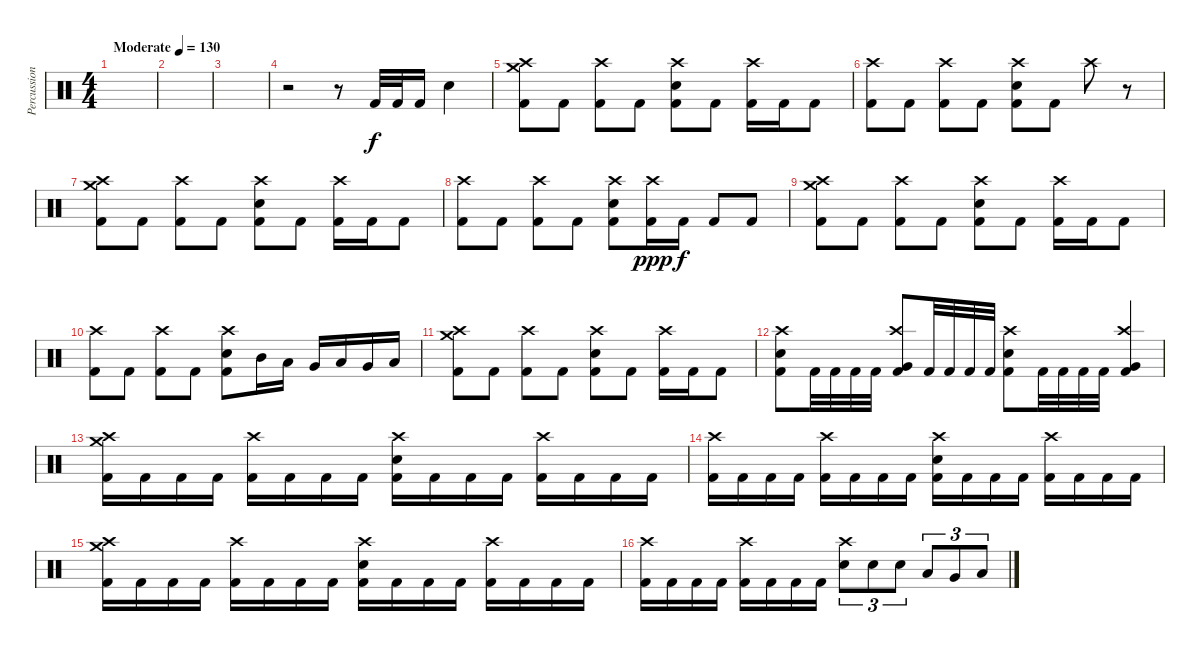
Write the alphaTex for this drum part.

\track ("Percussion" "Percussion") {instrument percussion}
\staff {score}
\articulation defaults
\ts (4 4)
\tempo (130 "Moderate")
\clef neutral
\ks c
|
|
|
r.2 r.8 "Kick (hit) 2".32 "Kick (hit) 2".32 "Kick (hit) 2".16 "Electric Snare (hit)".4 |
("Crash medium (hit)" "Crash high (hit)" "Kick (hit) 2").8 "Kick (hit) 2".8 ("Crash high (hit)" "Kick (hit) 2").8 "Kick (hit) 2".8 ("Crash high (hit)" "Electric Snare (hit)" "Kick (hit) 2").8 "Kick (hit) 2".8 ("Crash high (hit)" "Kick (hit) 2").16 "Kick (hit) 2".16 "Kick (hit) 2".8 |
("Crash high (hit)" "Kick (hit) 2").8 "Kick (hit) 2".8 ("Crash high (hit)" "Kick (hit) 2").8 "Kick (hit) 2".8 ("Crash high (hit)" "Electric Snare (hit)" "Kick (hit) 2").8 "Kick (hit) 2".8 "Crash high (hit)".8 r.8 |
("Crash medium (hit)" "Crash high (hit)" "Kick (hit) 2").8 "Kick (hit) 2".8 ("Crash high (hit)" "Kick (hit) 2").8 "Kick (hit) 2".8 ("Crash high (hit)" "Electric Snare (hit)" "Kick (hit) 2").8 "Kick (hit) 2".8 ("Crash high (hit)" "Kick (hit) 2").16 "Kick (hit) 2".16 "Kick (hit) 2".8 |
("Crash high (hit)" "Kick (hit) 2").8 "Kick (hit) 2".8 ("Crash high (hit)" "Kick (hit) 2").8 "Kick (hit) 2".8 ("Crash high (hit)" "Electric Snare (hit)" "Kick (hit) 2").8 ("Crash high (hit)" "Kick (hit) 2").16{dy ppp} "Kick (hit) 2".16{dy f} "Kick (hit) 2".8 "Kick (hit) 2".8 |
("Crash medium (hit)" "Crash high (hit)" "Kick (hit) 2").8 "Kick (hit) 2".8 ("Crash high (hit)" "Kick (hit) 2").8 "Kick (hit) 2".8 ("Crash high (hit)" "Electric Snare (hit)" "Kick (hit) 2").8 "Kick (hit) 2".8 ("Crash high (hit)" "Kick (hit) 2").16 "Kick (hit) 2".16 "Kick (hit) 2".8 |
("Crash high (hit)" "Kick (hit) 2").8 "Kick (hit) 2".8 ("Crash high (hit)" "Kick (hit) 2").8 "Kick (hit) 2".8 ("Crash high (hit)" "Electric Snare (hit)" "Kick (hit) 2").8 "Mid Tom (hit)".16 "Low Tom (hit)".16 "Very Low Tom (hit)".16 "Low Tom (hit)".16 "Very Low Tom (hit)".16 "Low Floor Tom (hit)".16 |
("Crash medium (hit)" "Crash high (hit)" "Kick (hit) 2").8 "Kick (hit) 2".8 ("Crash high (hit)" "Kick (hit) 2").8 "Kick (hit) 2".8 ("Crash high (hit)" "Electric Snare (hit)" "Kick (hit) 2").8 "Kick (hit) 2".8 ("Crash high (hit)" "Kick (hit) 2").16 "Kick (hit) 2".16 "Kick (hit) 2".8 |
("Crash high (hit)" "Electric Snare (hit)" "Kick (hit) 2").8 "Kick (hit) 2".32 "Kick (hit) 2".32 "Kick (hit) 2".32 "Kick (hit) 2".32 ("Crash high (hit)" "Very Low Tom (hit)" "Kick (hit) 2").8 "Kick (hit) 2".32 "Kick (hit) 2".32 "Kick (hit) 2".32 "Kick (hit) 2".32 ("Crash high (hit)" "Electric Snare (hit)" "Kick (hit) 2").8 "Kick (hit) 2".32 "Kick (hit) 2".32 "Kick (hit) 2".32 "Kick (hit) 2".32 ("Crash high (hit)" "Very Low Tom (hit)" "Kick (hit) 2").4 |
("Crash medium (hit)" "Crash high (hit)" "Kick (hit) 2").16 "Kick (hit) 2".16 "Kick (hit) 2".16 "Kick (hit) 2".16 ("Crash high (hit)" "Kick (hit) 2").16 "Kick (hit) 2".16 "Kick (hit) 2".16 "Kick (hit) 2".16 ("Crash high (hit)" "Electric Snare (hit)" "Kick (hit) 2").16 "Kick (hit) 2".16 "Kick (hit) 2".16 "Kick (hit) 2".16 ("Crash high (hit)" "Kick (hit) 2").16 "Kick (hit) 2".16 "Kick (hit) 2".16 "Kick (hit) 2".16 |
("Crash high (hit)" "Kick (hit) 2").16 "Kick (hit) 2".16 "Kick (hit) 2".16 "Kick (hit) 2".16 ("Crash high (hit)" "Kick (hit) 2").16 "Kick (hit) 2".16 "Kick (hit) 2".16 "Kick (hit) 2".16 ("Crash high (hit)" "Electric Snare (hit)" "Kick (hit) 2").16 "Kick (hit) 2".16 "Kick (hit) 2".16 "Kick (hit) 2".16 ("Crash high (hit)" "Kick (hit) 2").16 "Kick (hit) 2".16 "Kick (hit) 2".16 "Kick (hit) 2".16 |
("Crash medium (hit)" "Crash high (hit)" "Kick (hit) 2").16 "Kick (hit) 2".16 "Kick (hit) 2".16 "Kick (hit) 2".16 ("Crash high (hit)" "Kick (hit) 2").16 "Kick (hit) 2".16 "Kick (hit) 2".16 "Kick (hit) 2".16 ("Crash high (hit)" "Electric Snare (hit)" "Kick (hit) 2").16 "Kick (hit) 2".16 "Kick (hit) 2".16 "Kick (hit) 2".16 ("Crash high (hit)" "Kick (hit) 2").16 "Kick (hit) 2".16 "Kick (hit) 2".16 "Kick (hit) 2".16 |
("Crash high (hit)" "Kick (hit) 2").16 "Kick (hit) 2".16 "Kick (hit) 2".16 "Kick (hit) 2".16 ("Crash high (hit)" "Kick (hit) 2").16 "Kick (hit) 2".16 "Kick (hit) 2".16 "Kick (hit) 2".16 ("Crash high (hit)" "Electric Snare (hit)").8{tu (3 2)} "Electric Snare (hit)".8{tu (3 2)} "Electric Snare (hit)".8{tu (3 2)} "Low Tom (hit)".8{tu (3 2)} "Very Low Tom (hit)".8{tu (3 2)} "Low Floor Tom (hit)".8{tu (3 2)}
